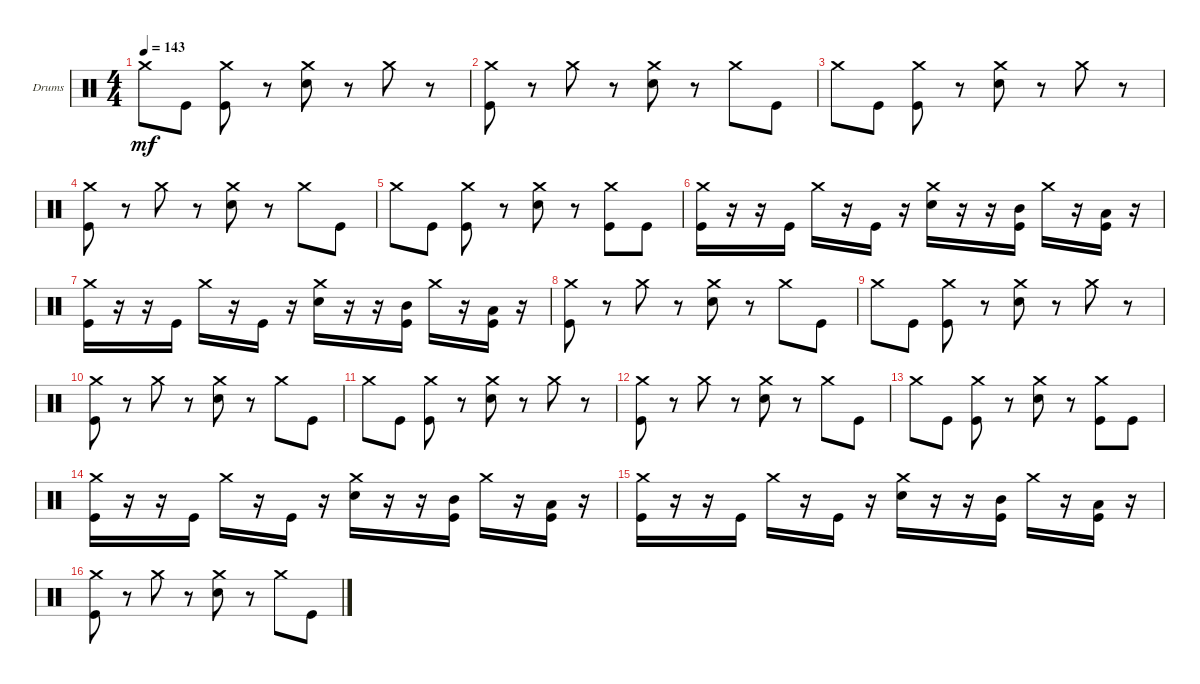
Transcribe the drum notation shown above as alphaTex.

\defaultSystemsLayout 4
\bracketExtendMode groupsimilarinstruments
\firstSystemTrackNameOrientation horizontal
\otherSystemsTrackNameOrientation horizontal
\track ("Drumkit" "Drums") {instrument percussion}
\staff {score}
\articulation defaults
\ts (4 4)
\tempo 143
\clef neutral
\scale
0.333333
\ks c "Crash medium (hit)".8{dy mf} "Kick (hit)".8
("Kick (hit)" "Crash medium (hit)").8 r.8 ("Snare (hit) 2" "Crash medium (hit)").8 r.8 "Crash medium (hit)".8 r.8 |
\scale
0.333333 ("Kick (hit)" "Crash medium (hit)").8 r.8 "Crash medium (hit)".8 r.8 ("Snare (hit) 2" "Crash medium (hit)").8 r.8 "Crash medium (hit)".8 "Kick (hit)".8 |
\scale
0.333333 "Crash medium (hit)".8 "Kick (hit)".8 ("Kick (hit)" "Crash medium (hit)").8 r.8 ("Snare (hit) 2" "Crash medium (hit)").8 r.8 "Crash medium (hit)".8 r.8 |
\scale
0.333333 ("Kick (hit)" "Crash medium (hit)").8 r.8 "Crash medium (hit)".8 r.8 ("Snare (hit) 2" "Crash medium (hit)").8 r.8 "Crash medium (hit)".8 "Kick (hit)".8 |
\scale
0.333333 "Crash medium (hit)".8 "Kick (hit)".8 ("Kick (hit)" "Crash medium (hit)").8 r.8 ("Snare (hit) 2" "Crash medium (hit)").8 r.8 ("Crash medium (hit)" "Kick (hit)").8 "Kick (hit)".8 |
\scale
0.333333 ("Kick (hit)" "Crash medium (hit)").16 r.16 r.16 "Kick (hit)".16 "Crash medium (hit)".16 r.16 "Kick (hit)".16 r.16 ("Snare (hit) 2" "Crash medium (hit)").16 r.16 r.16 ("Kick (hit)" "Mid Tom (hit)").16 "Crash medium (hit)".16 r.16 ("Kick (hit)" "Low Tom (hit)").16 r.16 |
\scale
0.333333 ("Kick (hit)" "Crash medium (hit)").16 r.16 r.16 "Kick (hit)".16 "Crash medium (hit)".16 r.16 "Kick (hit)".16 r.16 ("Snare (hit) 2" "Crash medium (hit)").16 r.16 r.16 ("Kick (hit)" "Mid Tom (hit)").16 "Crash medium (hit)".16 r.16 ("Kick (hit)" "Low Tom (hit)").16 r.16 |
\scale
0.333333 ("Kick (hit)" "Crash medium (hit)").8 r.8 "Crash medium (hit)".8 r.8 ("Snare (hit) 2" "Crash medium (hit)").8 r.8 "Crash medium (hit)".8 "Kick (hit)".8 |
\scale
0.333333 "Crash medium (hit)".8 "Kick (hit)".8 ("Kick (hit)" "Crash medium (hit)").8 r.8 ("Snare (hit) 2" "Crash medium (hit)").8 r.8 "Crash medium (hit)".8 r.8 |
\scale
0.333333 ("Kick (hit)" "Crash medium (hit)").8 r.8 "Crash medium (hit)".8 r.8 ("Snare (hit) 2" "Crash medium (hit)").8 r.8 "Crash medium (hit)".8 "Kick (hit)".8 |
\scale
0.333333 "Crash medium (hit)".8 "Kick (hit)".8 ("Kick (hit)" "Crash medium (hit)").8 r.8 ("Snare (hit) 2" "Crash medium (hit)").8 r.8 "Crash medium (hit)".8 r.8 |
\scale
0.333333 ("Kick (hit)" "Crash medium (hit)").8 r.8 "Crash medium (hit)".8 r.8 ("Snare (hit) 2" "Crash medium (hit)").8 r.8 "Crash medium (hit)".8 "Kick (hit)".8 |
\scale
0.333333 "Crash medium (hit)".8 "Kick (hit)".8 ("Kick (hit)" "Crash medium (hit)").8 r.8 ("Snare (hit) 2" "Crash medium (hit)").8 r.8 ("Crash medium (hit)" "Kick (hit)").8 "Kick (hit)".8 |
\scale
0.333333 ("Kick (hit)" "Crash medium (hit)").16 r.16 r.16 "Kick (hit)".16 "Crash medium (hit)".16 r.16 "Kick (hit)".16 r.16 ("Snare (hit) 2" "Crash medium (hit)").16 r.16 r.16 ("Kick (hit)" "Mid Tom (hit)").16 "Crash medium (hit)".16 r.16 ("Kick (hit)" "Low Tom (hit)").16 r.16 |
\scale
0.333333 ("Kick (hit)" "Crash medium (hit)").16 r.16 r.16 "Kick (hit)".16 "Crash medium (hit)".16 r.16 "Kick (hit)".16 r.16 ("Snare (hit) 2" "Crash medium (hit)").16 r.16 r.16 ("Kick (hit)" "Mid Tom (hit)").16 "Crash medium (hit)".16 r.16 ("Kick (hit)" "Low Tom (hit)").16 r.16 |
\scale
0.333333 ("Kick (hit)" "Crash medium (hit)").8 r.8 "Crash medium (hit)".8 r.8 ("Snare (hit) 2" "Crash medium (hit)").8 r.8 "Crash medium (hit)".8 "Kick (hit)".8
